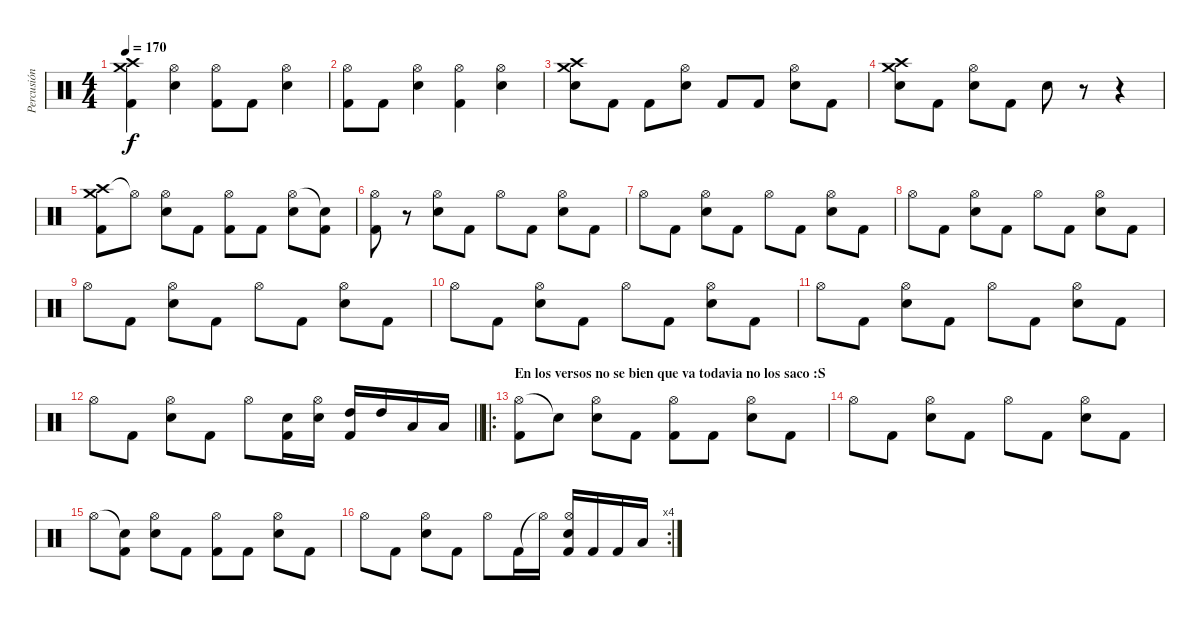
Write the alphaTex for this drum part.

\track ("Percusión" "Percusión") {instrument percussion}
\staff {score}
\articulation defaults
\ts (4 4)
\tempo 170
\clef neutral
\ks c
("Crash medium (hit)" "Crash high (hit)" "Kick (hit) 2").4{dy f} ("Hi-Hat (open)" "Electric Snare (hit)").4 ("Hi-Hat (open)" "Kick (hit) 2").8 "Kick (hit) 2".8 ("Hi-Hat (open)" "Electric Snare (hit)").4 |
("Hi-Hat (open)" "Kick (hit) 2").8 "Kick (hit) 2".8 ("Hi-Hat (open)" "Electric Snare (hit)").4 ("Hi-Hat (open)" "Kick (hit) 2").4 ("Hi-Hat (open)" "Electric Snare (hit)").4 |
("Crash medium (hit)" "Crash high (hit)" "Electric Snare (hit)").8 "Kick (hit) 2".8 "Kick (hit) 2".8 ("Hi-Hat (open)" "Electric Snare (hit)").8 "Kick (hit) 2".8 "Kick (hit) 2".8 ("Hi-Hat (open)" "Electric Snare (hit)").8 "Kick (hit) 2".8 |
("Crash high (hit)" "Crash medium (hit)" "Electric Snare (hit)").8 "Kick (hit) 2".8 ("Hi-Hat (open)" "Electric Snare (hit)").8 "Kick (hit) 2".8 "Electric Snare (hit)".8 r.8 r.4 |
("Crash high (hit)" "Crash medium (hit)" "Kick (hit) 2").8 "Hi-Hat (open)"{t}.8 ("Hi-Hat (open)" "Electric Snare (hit)").8 "Kick (hit) 2".8 ("Hi-Hat (open)" "Kick (hit) 2").8 "Kick (hit) 2".8 ("Hi-Hat (open)" "Electric Snare (hit)").8 ("Snare (hit)"{t} "Kick (hit) 2").8 |
("Hi-Hat (open)" "Kick (hit) 2").8 r.8 ("Hi-Hat (open)" "Electric Snare (hit)").8 "Kick (hit) 2".8 "Hi-Hat (open)".8 "Kick (hit) 2".8 ("Hi-Hat (open)" "Electric Snare (hit)").8 "Kick (hit) 2".8 |
"Hi-Hat (open)".8 "Kick (hit) 2".8 ("Hi-Hat (open)" "Electric Snare (hit)").8 "Kick (hit) 2".8 "Hi-Hat (open)".8 "Kick (hit) 2".8 ("Hi-Hat (open)" "Electric Snare (hit)").8 "Kick (hit) 2".8 |
"Hi-Hat (open)".8 "Kick (hit) 2".8 ("Hi-Hat (open)" "Electric Snare (hit)").8 "Kick (hit) 2".8 "Hi-Hat (open)".8 "Kick (hit) 2".8 ("Hi-Hat (open)" "Electric Snare (hit)").8 "Kick (hit) 2".8 |
"Hi-Hat (open)".8 "Kick (hit) 2".8 ("Hi-Hat (open)" "Electric Snare (hit)").8 "Kick (hit) 2".8 "Hi-Hat (open)".8 "Kick (hit) 2".8 ("Hi-Hat (open)" "Electric Snare (hit)").8 "Kick (hit) 2".8 |
"Hi-Hat (open)".8 "Kick (hit) 2".8 ("Hi-Hat (open)" "Electric Snare (hit)").8 "Kick (hit) 2".8 "Hi-Hat (open)".8 "Kick (hit) 2".8 ("Hi-Hat (open)" "Electric Snare (hit)").8 "Kick (hit) 2".8 |
"Hi-Hat (open)".8 "Kick (hit) 2".8 ("Hi-Hat (open)" "Electric Snare (hit)").8 "Kick (hit) 2".8 "Hi-Hat (open)".8 "Kick (hit) 2".8 ("Hi-Hat (open)" "Electric Snare (hit)").8 "Kick (hit) 2".8 |
\barLineRight lightlight "Hi-Hat (open)".8 "Kick (hit) 2".8
("Hi-Hat (open)" "Electric Snare (hit)").8 "Kick (hit) 2".8 "Hi-Hat (open)".8 ("Electric Snare (hit)" "Kick (hit) 2").16 ("Hi-Hat (open)" "Electric Snare (hit)").16 ("High Tom (hit)" "Kick (hit) 2").16 "High Tom (hit)".16 "Low Tom (hit)".16 "Low Tom (hit)".16 |
\ro
\section ("" "En los versos no se bien que va todavia no los saco :S")
("Hi-Hat (open)" "Kick (hit) 2").8 "Snare (hit)"{t}.8 ("Hi-Hat (open)" "Electric Snare (hit)").8 "Kick (hit) 2".8 ("Hi-Hat (open)" "Kick (hit) 2").8 "Kick (hit) 2".8 ("Hi-Hat (open)" "Electric Snare (hit)").8 "Kick (hit) 2".8 |
"Hi-Hat (open)".8 "Kick (hit) 2".8 ("Hi-Hat (open)" "Electric Snare (hit)").8 "Kick (hit) 2".8 "Hi-Hat (open)".8 "Kick (hit) 2".8 ("Hi-Hat (open)" "Electric Snare (hit)").8 "Kick (hit) 2".8 |
"Hi-Hat (open)".8 ("Snare (hit)"{t} "Kick (hit) 2").8 ("Hi-Hat (open)" "Electric Snare (hit)").8 "Kick (hit) 2".8 ("Hi-Hat (open)" "Kick (hit) 2").8 "Kick (hit) 2".8 ("Hi-Hat (open)" "Electric Snare (hit)").8 "Kick (hit) 2".8 |
\rc 4 "Hi-Hat (open)".8 "Kick (hit) 2".8
("Hi-Hat (open)" "Electric Snare (hit)").8 "Kick (hit) 2".8 "Hi-Hat (open)".8 "Kick (hit) 2".16 "Hi-Hat (open)"{t}.16 ("Hi-Hat (open)" "Electric Snare (hit)" "Kick (hit) 2").16 "Kick (hit) 2".16 "Kick (hit) 2".16 "Low Floor Tom (hit)".16
